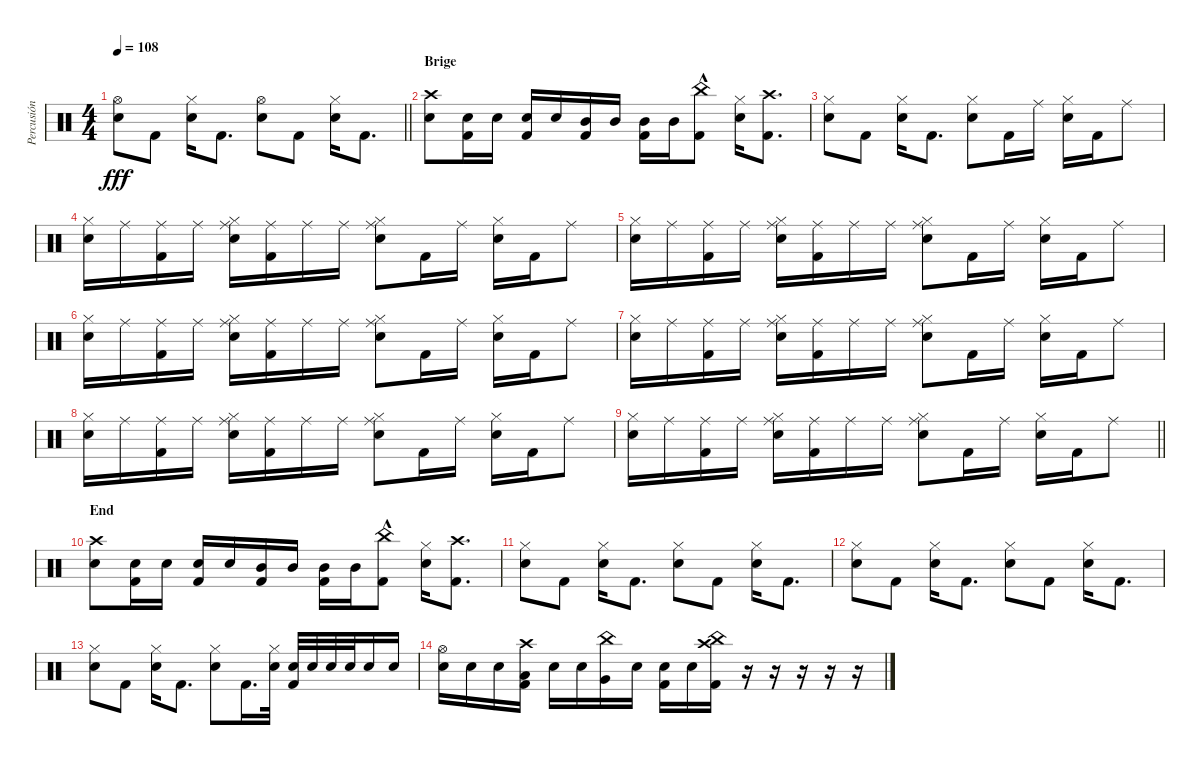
\track ("Percusión" "Percusión") {instrument percussion}
\staff {score}
\articulation defaults
\ts (4 4)
\tempo 108
\clef neutral
\barLineRight lightlight
\ks c
("Snare (hit) 2" "Hi-Hat (open)").8{dy fff} "Kick (hit) 2".8 ("Snare (hit) 2" "Hi-Hat (closed)").16 "Kick (hit) 2".8{d} ("Snare (hit) 2" "Hi-Hat (open)").8 "Kick (hit) 2".8 ("Snare (hit) 2" "Hi-Hat (closed)").16 "Kick (hit) 2".8{d} |
\section ("" "Brige")
("Snare (hit) 2" "Crash high (hit)").8 ("Snare (hit) 2" "Kick (hit) 2").16 "Snare (hit) 2".16 ("Snare (hit) 2" "Kick (hit) 2").16 "Snare (hit) 2".16 ("Mid Tom (hit)" "Kick (hit) 2").16 "Mid Tom (hit)".16 ("Mid Tom (hit)" "Kick (hit) 2").16 "Mid Tom (hit)".16 ("China (hit)"{hac} "Kick (hit) 2").8 ("Snare (hit) 2" "Hi-Hat (closed)").16 ("Kick (hit) 2" "Crash high (hit)").8{d} |
("Snare (hit) 2" "Hi-Hat (closed)").8 "Kick (hit) 2".8 ("Snare (hit) 2" "Hi-Hat (closed)").16 "Kick (hit) 2".8{d} ("Snare (hit) 2" "Hi-Hat (closed)").8 "Kick (hit) 2".16 "Ride (middle)".16 ("Snare (hit) 2" "Hi-Hat (closed)").16 "Kick (hit) 2".16 "Ride (middle)".8 |
("Snare (hit) 2" "Hi-Hat (closed)").16 "Ride (middle)".16 ("Kick (hit) 2" "Ride (middle)").16 "Ride (middle)".16 ("Snare (hit) 2" "Hi-Hat (closed)" "Ride (middle)").16 ("Kick (hit) 2" "Ride (middle)").16 "Ride (middle)".16 "Ride (middle)".16 ("Snare (hit) 2" "Hi-Hat (closed)" "Ride (middle)").8 "Kick (hit) 2".16 "Ride (middle)".16 ("Snare (hit) 2" "Hi-Hat (closed)").16 "Kick (hit) 2".16 "Ride (middle)".8 |
("Snare (hit) 2" "Hi-Hat (closed)").16 "Ride (middle)".16 ("Kick (hit) 2" "Ride (middle)").16 "Ride (middle)".16 ("Snare (hit) 2" "Hi-Hat (closed)" "Ride (middle)").16 ("Kick (hit) 2" "Ride (middle)").16 "Ride (middle)".16 "Ride (middle)".16 ("Snare (hit) 2" "Hi-Hat (closed)" "Ride (middle)").8 "Kick (hit) 2".16 "Ride (middle)".16 ("Snare (hit) 2" "Hi-Hat (closed)").16 "Kick (hit) 2".16 "Ride (middle)".8 |
("Snare (hit) 2" "Hi-Hat (closed)").16 "Ride (middle)".16 ("Kick (hit) 2" "Ride (middle)").16 "Ride (middle)".16 ("Snare (hit) 2" "Hi-Hat (closed)" "Ride (middle)").16 ("Kick (hit) 2" "Ride (middle)").16 "Ride (middle)".16 "Ride (middle)".16 ("Snare (hit) 2" "Hi-Hat (closed)" "Ride (middle)").8 "Kick (hit) 2".16 "Ride (middle)".16 ("Snare (hit) 2" "Hi-Hat (closed)").16 "Kick (hit) 2".16 "Ride (middle)".8 |
("Snare (hit) 2" "Hi-Hat (closed)").16 "Ride (middle)".16 ("Kick (hit) 2" "Ride (middle)").16 "Ride (middle)".16 ("Snare (hit) 2" "Hi-Hat (closed)" "Ride (middle)").16 ("Kick (hit) 2" "Ride (middle)").16 "Ride (middle)".16 "Ride (middle)".16 ("Snare (hit) 2" "Hi-Hat (closed)" "Ride (middle)").8 "Kick (hit) 2".16 "Ride (middle)".16 ("Snare (hit) 2" "Hi-Hat (closed)").16 "Kick (hit) 2".16 "Ride (middle)".8 |
("Snare (hit) 2" "Hi-Hat (closed)").16 "Ride (middle)".16 ("Kick (hit) 2" "Ride (middle)").16 "Ride (middle)".16 ("Snare (hit) 2" "Hi-Hat (closed)" "Ride (middle)").16 ("Kick (hit) 2" "Ride (middle)").16 "Ride (middle)".16 "Ride (middle)".16 ("Snare (hit) 2" "Hi-Hat (closed)" "Ride (middle)").8 "Kick (hit) 2".16 "Ride (middle)".16 ("Snare (hit) 2" "Hi-Hat (closed)").16 "Kick (hit) 2".16 "Ride (middle)".8 |
\barLineRight lightlight
("Snare (hit) 2" "Hi-Hat (closed)").16 "Ride (middle)".16 ("Kick (hit) 2" "Ride (middle)").16 "Ride (middle)".16 ("Snare (hit) 2" "Hi-Hat (closed)" "Ride (middle)").16 ("Kick (hit) 2" "Ride (middle)").16 "Ride (middle)".16 "Ride (middle)".16 ("Snare (hit) 2" "Hi-Hat (closed)" "Ride (middle)").8 "Kick (hit) 2".16 "Ride (middle)".16 ("Snare (hit) 2" "Hi-Hat (closed)").16 "Kick (hit) 2".16 "Ride (middle)".8 |
\section ("" "End")
("Snare (hit) 2" "Crash high (hit)").8 ("Snare (hit) 2" "Kick (hit) 2").16 "Snare (hit) 2".16 ("Snare (hit) 2" "Kick (hit) 2").16 "Snare (hit) 2".16 ("Mid Tom (hit)" "Kick (hit) 2").16 "Mid Tom (hit)".16 ("Mid Tom (hit)" "Kick (hit) 2").16 "Mid Tom (hit)".16 ("China (hit)"{hac} "Kick (hit) 2").8 ("Snare (hit) 2" "Hi-Hat (closed)").16 ("Kick (hit) 2" "Crash high (hit)").8{d} |
("Snare (hit) 2" "Hi-Hat (closed)").8 "Kick (hit) 2".8 ("Snare (hit) 2" "Hi-Hat (closed)").16 "Kick (hit) 2".8{d} ("Snare (hit) 2" "Hi-Hat (closed)").8 "Kick (hit) 2".8 ("Snare (hit) 2" "Hi-Hat (closed)").16 "Kick (hit) 2".8{d} |
("Snare (hit) 2" "Hi-Hat (closed)").8 "Kick (hit) 2".8 ("Snare (hit) 2" "Hi-Hat (closed)").16 "Kick (hit) 2".8{d} ("Snare (hit) 2" "Hi-Hat (closed)").8 "Kick (hit) 2".8 ("Snare (hit) 2" "Hi-Hat (closed)").16 "Kick (hit) 2".8{d} |
("Snare (hit) 2" "Hi-Hat (closed)").8 "Kick (hit) 2".8 ("Snare (hit) 2" "Hi-Hat (closed)").16 "Kick (hit) 2".8{d} ("Snare (hit) 2" "Hi-Hat (closed)").8 "Kick (hit) 2".16{d} ("Snare (hit) 2" "Hi-Hat (closed)").32 ("Snare (hit) 2" "Kick (hit) 2").32 "Snare (hit) 2".32 "Snare (hit) 2".32 "Snare (hit) 2".32 "Snare (hit) 2".16 "Snare (hit) 2".16 |
("Snare (hit) 2" "Hi-Hat (open)").16 "Snare (hit) 2".16 "Snare (hit) 2".16 ("Low Tom (hit)" "Kick (hit) 2" "Crash high (hit)").16 "Snare (hit) 2".16 "Snare (hit) 2".16 ("Very Low Tom (hit)" "China (hit)").16 "Snare (hit) 2".16 ("Snare (hit) 2" "Kick (hit) 2").16 "Snare (hit) 2".16 ("Kick (hit) 2" "China (hit)" "Crash high (hit)").16 r.16 r.16 r.16 r.16 r.16
